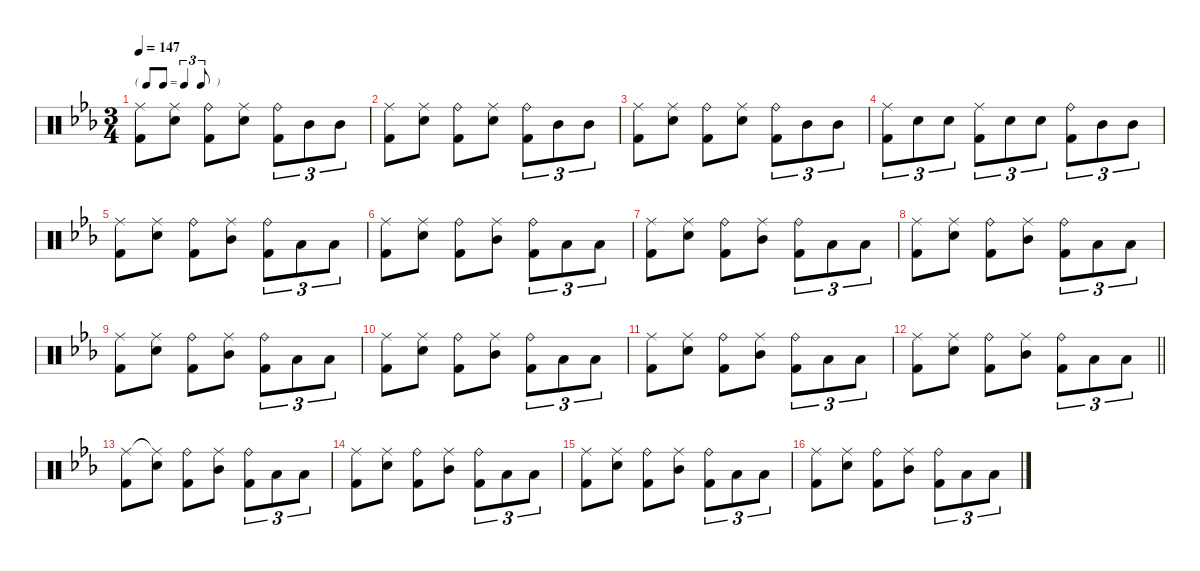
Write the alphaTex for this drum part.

\defaultSystemsLayout 4
\hideDynamics
\bracketExtendMode nobrackets
\singleTrackTrackNamePolicy hidden
\multiTrackTrackNamePolicy hidden
\firstSystemTrackNameMode fullname
\firstSystemTrackNameOrientation horizontal
\otherSystemsTrackNameOrientation horizontal
\track ("Percussion" "drm.") {defaultSystemsLayout 8 instrument percussion}
\staff {score}
\articulation defaults
\ts (3 4)
\tf triplet8th
\tempo 147
\clef neutral
\ks eb
("Ride (middle)"{acc forcenatural} "Kick (hit) 2"{acc forcenatural}).8{dy f beam Down} ("Ride (middle)"{acc forcenatural} "Snare (hit) 2"{acc forcenatural}).8{beam Down} ("Ride (bell)"{acc forcenatural} "Kick (hit) 2"{acc forcenatural}).8{beam Down} ("Ride (middle)"{acc forcenatural} "Snare (hit) 2"{acc forcenatural}).8{beam Down} ("Ride (bell)"{acc forcenatural} "Kick (hit) 2"{acc forcenatural}).8{tu (3 2) beam Down} "Mid Tom (hit)"{acc forcenatural}.8{tu (3 2) beam Down} "Mid Tom (hit)"{acc forcenatural}.8{tu (3 2) beam Down} |
("Ride (middle)"{acc forcenatural} "Kick (hit) 2"{acc forcenatural}).8{beam Down} ("Ride (middle)"{acc forcenatural} "Snare (hit) 2"{acc forcenatural}).8{beam Down} ("Ride (bell)"{acc forcenatural} "Kick (hit) 2"{acc forcenatural}).8{beam Down} ("Ride (middle)"{acc forcenatural} "Snare (hit) 2"{acc forcenatural}).8{beam Down} ("Ride (bell)"{acc forcenatural} "Kick (hit) 2"{acc forcenatural}).8{tu (3 2) beam Down} "Mid Tom (hit)"{acc forcenatural}.8{tu (3 2) beam Down} "Mid Tom (hit)"{acc forcenatural}.8{tu (3 2) beam Down} |
("Ride (middle)"{acc forcenatural} "Kick (hit) 2"{acc forcenatural}).8{beam Down} ("Ride (middle)"{acc forcenatural} "Snare (hit) 2"{acc forcenatural}).8{beam Down} ("Ride (bell)"{acc forcenatural} "Kick (hit) 2"{acc forcenatural}).8{beam Down} ("Ride (middle)"{acc forcenatural} "Snare (hit) 2"{acc forcenatural}).8{beam Down} ("Ride (bell)"{acc forcenatural} "Kick (hit) 2"{acc forcenatural}).8{tu (3 2) beam Down} "Mid Tom (hit)"{acc forcenatural}.8{tu (3 2) beam Down} "Mid Tom (hit)"{acc forcenatural}.8{tu (3 2) beam Down} |
("Ride (middle)"{acc forcenatural} "Kick (hit) 2"{acc forcenatural}).8{tu (3 2) dy mp beam Down} "Snare (hit) 2"{acc forcenatural}.8{tu (3 2) dy f beam Down} "Snare (hit) 2"{acc forcenatural}.8{tu (3 2) dy mp beam Down} ("Ride (middle)"{acc forcenatural} "Kick (hit) 2"{acc forcenatural}).8{tu (3 2) beam Down} "Snare (hit) 2"{acc forcenatural}.8{tu (3 2) dy f beam Down} "Snare (hit) 2"{acc forcenatural}.8{tu (3 2) dy mp beam Down} ("Ride (bell)"{acc forcenatural} "Kick (hit) 2"{acc forcenatural}).8{tu (3 2) dy f beam Down} "Mid Tom (hit)"{acc forcenatural}.8{tu (3 2) beam Down} "Mid Tom (hit)"{acc forcenatural}.8{tu (3 2) beam Down} |
("Ride (middle)"{acc forcenatural} "Kick (hit) 2"{acc forcenatural}).8{beam Down} ("Ride (middle)"{acc forcenatural} "Snare (hit) 2"{acc forcenatural}).8{beam Down} ("Ride (bell)"{acc forcenatural} "Kick (hit) 2"{acc forcenatural}).8{beam Down} ("Ride (middle)"{acc forcenatural} "Mid Tom (hit)"{acc forcenatural}).8{beam Down} ("Ride (bell)"{acc forcenatural} "Kick (hit) 2"{acc forcenatural}).8{tu (3 2) beam Down} "Low Floor Tom (hit)"{acc forcenatural}.8{tu (3 2) beam Down} "Low Floor Tom (hit)"{acc forcenatural}.8{tu (3 2) beam Down} |
("Ride (middle)"{acc forcenatural} "Kick (hit) 2"{acc forcenatural}).8{beam Down} ("Ride (middle)"{acc forcenatural} "Snare (hit) 2"{acc forcenatural}).8{beam Down} ("Ride (bell)"{acc forcenatural} "Kick (hit) 2"{acc forcenatural}).8{beam Down} ("Ride (middle)"{acc forcenatural} "Mid Tom (hit)"{acc forcenatural}).8{beam Down} ("Ride (bell)"{acc forcenatural} "Kick (hit) 2"{acc forcenatural}).8{tu (3 2) beam Down} "Low Floor Tom (hit)"{acc forcenatural}.8{tu (3 2) beam Down} "Low Floor Tom (hit)"{acc forcenatural}.8{tu (3 2) beam Down} |
("Ride (middle)"{acc forcenatural} "Kick (hit) 2"{acc forcenatural}).8{beam Down} ("Ride (middle)"{acc forcenatural} "Snare (hit) 2"{acc forcenatural}).8{beam Down} ("Ride (bell)"{acc forcenatural} "Kick (hit) 2"{acc forcenatural}).8{beam Down} ("Ride (middle)"{acc forcenatural} "Mid Tom (hit)"{acc forcenatural}).8{beam Down} ("Ride (bell)"{acc forcenatural} "Kick (hit) 2"{acc forcenatural}).8{tu (3 2) beam Down} "Low Floor Tom (hit)"{acc forcenatural}.8{tu (3 2) beam Down} "Low Floor Tom (hit)"{acc forcenatural}.8{tu (3 2) beam Down} |
("Ride (middle)"{acc forcenatural} "Kick (hit) 2"{acc forcenatural}).8{beam Down} ("Ride (middle)"{acc forcenatural} "Snare (hit) 2"{acc forcenatural}).8{beam Down} ("Ride (bell)"{acc forcenatural} "Kick (hit) 2"{acc forcenatural}).8{beam Down} ("Ride (middle)"{acc forcenatural} "Mid Tom (hit)"{acc forcenatural}).8{beam Down} ("Ride (bell)"{acc forcenatural} "Kick (hit) 2"{acc forcenatural}).8{tu (3 2) beam Down} "Low Floor Tom (hit)"{acc forcenatural}.8{tu (3 2) beam Down} "Low Floor Tom (hit)"{acc forcenatural}.8{tu (3 2) beam Down} |
("Ride (middle)"{acc forcenatural} "Kick (hit) 2"{acc forcenatural}).8{beam Down} ("Ride (middle)"{acc forcenatural} "Snare (hit) 2"{acc forcenatural}).8{beam Down} ("Ride (bell)"{acc forcenatural} "Kick (hit) 2"{acc forcenatural}).8{beam Down} ("Ride (middle)"{acc forcenatural} "Mid Tom (hit)"{acc forcenatural}).8{beam Down} ("Ride (bell)"{acc forcenatural} "Kick (hit) 2"{acc forcenatural}).8{tu (3 2) beam Down} "Low Floor Tom (hit)"{acc forcenatural}.8{tu (3 2) beam Down} "Low Floor Tom (hit)"{acc forcenatural}.8{tu (3 2) beam Down} |
("Ride (middle)"{acc forcenatural} "Kick (hit) 2"{acc forcenatural}).8{beam Down} ("Ride (middle)"{acc forcenatural} "Snare (hit) 2"{acc forcenatural}).8{beam Down} ("Ride (bell)"{acc forcenatural} "Kick (hit) 2"{acc forcenatural}).8{beam Down} ("Ride (middle)"{acc forcenatural} "Mid Tom (hit)"{acc forcenatural}).8{beam Down} ("Ride (bell)"{acc forcenatural} "Kick (hit) 2"{acc forcenatural}).8{tu (3 2) beam Down} "Low Floor Tom (hit)"{acc forcenatural}.8{tu (3 2) beam Down} "Low Floor Tom (hit)"{acc forcenatural}.8{tu (3 2) beam Down} |
("Ride (middle)"{acc forcenatural} "Kick (hit) 2"{acc forcenatural}).8{beam Down} ("Ride (middle)"{acc forcenatural} "Snare (hit) 2"{acc forcenatural}).8{beam Down} ("Ride (bell)"{acc forcenatural} "Kick (hit) 2"{acc forcenatural}).8{beam Down} ("Ride (middle)"{acc forcenatural} "Mid Tom (hit)"{acc forcenatural}).8{beam Down} ("Ride (bell)"{acc forcenatural} "Kick (hit) 2"{acc forcenatural}).8{tu (3 2) beam Down} "Low Floor Tom (hit)"{acc forcenatural}.8{tu (3 2) beam Down} "Low Floor Tom (hit)"{acc forcenatural}.8{tu (3 2) beam Down} |
\barLineRight lightlight
("Ride (middle)"{acc forcenatural} "Kick (hit) 2"{acc forcenatural}).8{beam Down} ("Ride (middle)"{acc forcenatural} "Snare (hit) 2"{acc forcenatural}).8{beam Down} ("Ride (bell)"{acc forcenatural} "Kick (hit) 2"{acc forcenatural}).8{beam Down} ("Ride (middle)"{acc forcenatural} "Mid Tom (hit)"{acc forcenatural}).8{beam Down} ("Ride (bell)"{acc forcenatural} "Kick (hit) 2"{acc forcenatural}).8{tu (3 2) beam Down} "Low Floor Tom (hit)"{acc forcenatural}.8{tu (3 2) beam Down} "Low Floor Tom (hit)"{acc forcenatural}.8{tu (3 2) beam Down} |
("Ride (middle)"{acc forcenatural} "Kick (hit) 2"{acc forcenatural}).8{beam Down} ("Ride (middle)"{t acc forcenatural} "Snare (hit) 2"{acc forcenatural}).8{beam Down} ("Ride (bell)"{acc forcenatural} "Kick (hit) 2"{acc forcenatural}).8{beam Down} ("Ride (middle)"{acc forcenatural} "Mid Tom (hit)"{acc forcenatural}).8{beam Down} ("Ride (bell)"{acc forcenatural} "Kick (hit) 2"{acc forcenatural}).8{tu (3 2) beam Down} "Low Floor Tom (hit)"{acc forcenatural}.8{tu (3 2) beam Down} "Low Floor Tom (hit)"{acc forcenatural}.8{tu (3 2) beam Down} |
("Ride (middle)"{acc forcenatural} "Kick (hit) 2"{acc forcenatural}).8{beam Down} ("Ride (middle)"{acc forcenatural} "Snare (hit) 2"{acc forcenatural}).8{beam Down} ("Ride (bell)"{acc forcenatural} "Kick (hit) 2"{acc forcenatural}).8{beam Down} ("Ride (middle)"{acc forcenatural} "Mid Tom (hit)"{acc forcenatural}).8{beam Down} ("Ride (bell)"{acc forcenatural} "Kick (hit) 2"{acc forcenatural}).8{tu (3 2) beam Down} "Low Floor Tom (hit)"{acc forcenatural}.8{tu (3 2) beam Down} "Low Floor Tom (hit)"{acc forcenatural}.8{tu (3 2) beam Down} |
("Ride (middle)"{acc forcenatural} "Kick (hit) 2"{acc forcenatural}).8{beam Down} ("Ride (middle)"{acc forcenatural} "Snare (hit) 2"{acc forcenatural}).8{beam Down} ("Ride (bell)"{acc forcenatural} "Kick (hit) 2"{acc forcenatural}).8{beam Down} ("Ride (middle)"{acc forcenatural} "Mid Tom (hit)"{acc forcenatural}).8{beam Down} ("Ride (bell)"{acc forcenatural} "Kick (hit) 2"{acc forcenatural}).8{tu (3 2) beam Down} "Low Floor Tom (hit)"{acc forcenatural}.8{tu (3 2) beam Down} "Low Floor Tom (hit)"{acc forcenatural}.8{tu (3 2) beam Down} |
("Ride (middle)"{acc forcenatural} "Kick (hit) 2"{acc forcenatural}).8{beam Down} ("Ride (middle)"{acc forcenatural} "Snare (hit) 2"{acc forcenatural}).8{beam Down} ("Ride (bell)"{acc forcenatural} "Kick (hit) 2"{acc forcenatural}).8{beam Down} ("Ride (middle)"{acc forcenatural} "Mid Tom (hit)"{acc forcenatural}).8{beam Down} ("Ride (bell)"{acc forcenatural} "Kick (hit) 2"{acc forcenatural}).8{tu (3 2) beam Down} "Low Floor Tom (hit)"{acc forcenatural}.8{tu (3 2) beam Down} "Low Floor Tom (hit)"{acc forcenatural}.8{tu (3 2) beam Down}
